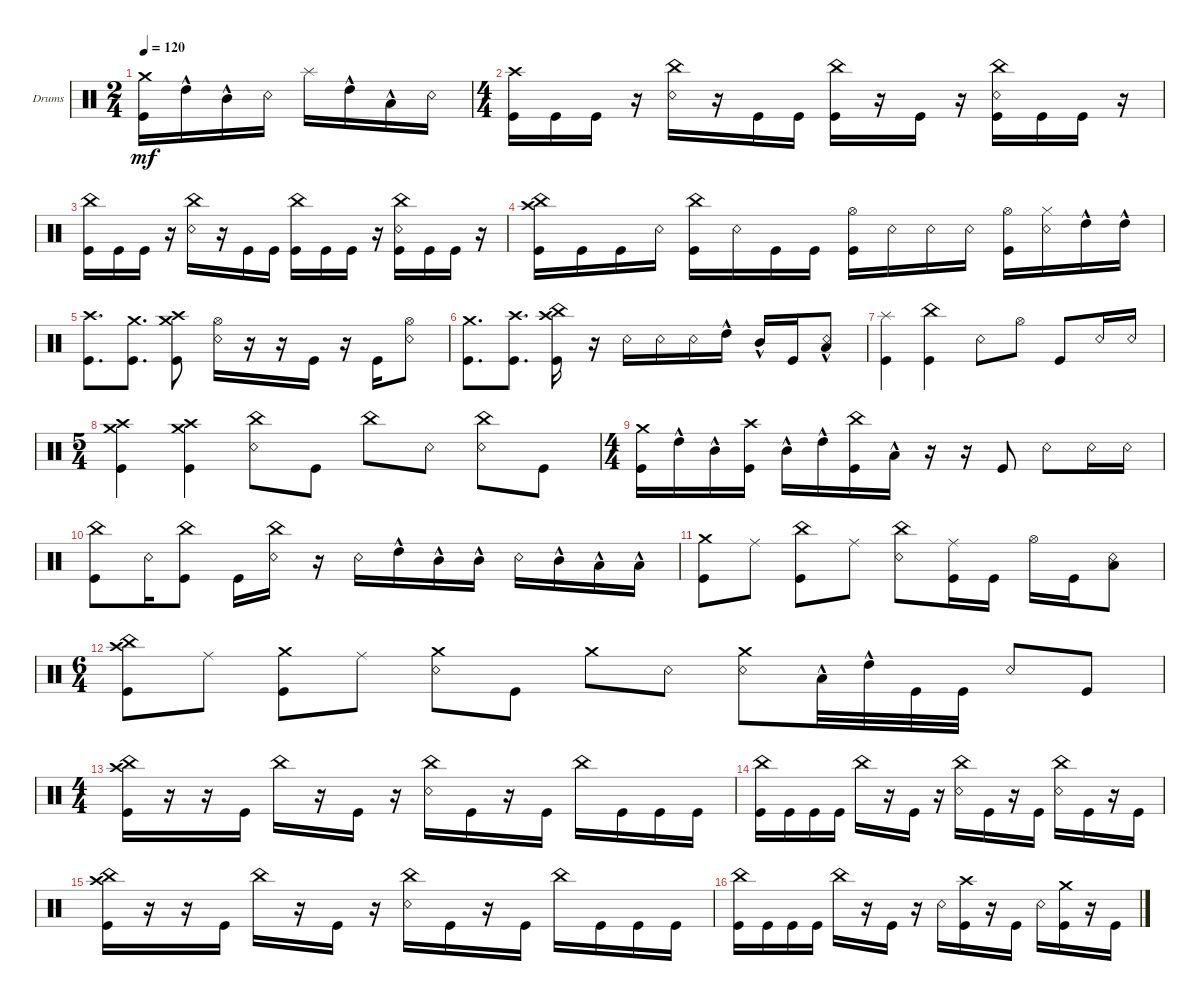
\defaultSystemsLayout 4
\bracketExtendMode groupsimilarinstruments
\firstSystemTrackNameOrientation horizontal
\otherSystemsTrackNameOrientation horizontal
\track ("Drumkit" "Drums") {instrument percussion}
\staff {score}
\articulation defaults
\ts (2 4)
\tempo 120
\clef neutral
\ks c
("Kick (hit)" "Crash medium (hit)").16{dy mf} "High Tom (hit)"{hac}.16 "Mid Tom (hit)"{hac}.16 "Snare (rim shot)".16 "Splash (hit)".16 "High Tom (hit)"{hac}.16 "Low Tom (hit)"{hac}.16 "Snare (rim shot)".16 |
\ts (4 4)
("Kick (hit)" "Crash high (hit)").16 "Kick (hit)".16 "Kick (hit)".16 r.16 ("China (hit)" "Snare (rim shot)").16 r.16 "Kick (hit)".16 "Kick (hit)".16 ("Kick (hit)" "China (hit)").16 r.16 "Kick (hit)".16 r.16 ("Kick (hit)" "Snare (rim shot)" "China (hit)").16 "Kick (hit)".16 "Kick (hit)".16 r.16 |
("Kick (hit)" "China (hit)").16 "Kick (hit)".16 "Kick (hit)".16 r.16 ("China (hit)" "Snare (rim shot)").16 r.16 "Kick (hit)".16 "Kick (hit)".16 ("Kick (hit)" "China (hit)").16 "Kick (hit)".16 "Kick (hit)".16 r.16 ("Kick (hit)" "Snare (rim shot)" "China (hit)").16 "Kick (hit)".16 "Kick (hit)".16 r.16 |
("Kick (hit)" "China (hit)" "Crash high (hit)").16 "Kick (hit)".16 "Kick (hit)".16 "Snare (rim shot)".16 ("Kick (hit)" "China (hit)").16 "Snare (rim shot)".16 "Kick (hit)".16 "Kick (hit)".16 ("Kick (hit)" "Hi-Hat (open)").16 "Snare (rim shot)".16 "Snare (rim shot)".16 "Snare (rim shot)".16 ("Kick (hit)" "Hi-Hat (open)").16 ("Snare (rim shot)" "Hi-Hat (closed)").16 "High Tom (hit)"{hac}.16 "High Tom (hit)"{hac}.16 |
("Kick (hit)" "Crash high (hit)").8{d} ("Kick (hit)" "Crash medium (hit)").8{d} ("Kick (hit)" "Crash high (hit)" "Crash medium (hit)").8 ("Snare (rim shot)" "Hi-Hat (open)").16 r.16 r.16 "Kick (hit)".16 r.16 "Kick (hit)".16 ("Snare (rim shot)" "Hi-Hat (open)").8 |
("Kick (hit)" "Crash medium (hit)").8{d} ("Kick (hit)" "Crash high (hit)").8{d} ("Crash high (hit)" "China (hit)" "Kick (hit)").16 r.16 "Snare (rim shot)".16 "Snare (rim shot)".16 "Snare (rim shot)".16 "High Tom (hit)"{hac}.16 "Mid Tom (hit)"{hac}.16 "Kick (hit)".16 ("Snare (rim shot)" "Low Tom (hit)"{hac}).8 |
("Splash (hit)" "Kick (hit)").4 ("Kick (hit)" "China (hit)").4 "Snare (rim shot)".8 "Hi-Hat (open)".8 "Kick (hit)".8 "Snare (rim shot)".16 "Snare (rim shot)".16 |
\ts (5 4)
("Kick (hit)" "Crash medium (hit)" "Crash high (hit)").4 ("Kick (hit)" "Crash medium (hit)" "Crash high (hit)").4 ("Snare (rim shot)" "China (hit)").8 "Kick (hit)".8 "China (hit)".8 "Snare (rim shot)".8 ("Snare (rim shot)" "China (hit)").8 "Kick (hit)".8 |
\ts (4 4)
("Kick (hit)" "Crash medium (hit)").16 "High Tom (hit)"{hac}.16 "Mid Tom (hit)"{hac}.16 ("Kick (hit)" "Crash high (hit)").16 "Mid Tom (hit)"{hac}.16 "High Tom (hit)"{hac}.16 ("Kick (hit)" "China (hit)").16 "Low Tom (hit)"{hac}.16 r.16 r.16 "Kick (hit)".8 "Snare (rim shot)".8 "Snare (rim shot)".16 "Snare (rim shot)".16 |
("China (hit)" "Kick (hit)").8 "Snare (rim shot)".16 ("China (hit)" "Kick (hit)").8 "Kick (hit)".16 ("China (hit)" "Snare (rim shot)").16 r.16 "Snare (rim shot)".16 "High Tom (hit)"{hac}.16 "Mid Tom (hit)"{hac}.16 "Mid Tom (hit)"{hac}.16 "Snare (rim shot)".16 "Mid Tom (hit)"{hac}.16 "Low Tom (hit)"{hac}.16 "Low Tom (hit)"{hac}.16 |
("Kick (hit)" "Crash medium (hit)").8 "Ride (middle)".8 ("Kick (hit)" "China (hit)").8 "Ride (middle)".8 ("Snare (rim shot)" "China (hit)").8 ("Kick (hit)" "Ride (middle)").16 "Kick (hit)".16 "Hi-Hat (open)".16 "Kick (hit)".16 ("Snare (rim shot)" "Low Tom (hit)").8 |
\ts (6 4)
\scale
0.381903 ("China (hit)" "Kick (hit)" "Crash high (hit)").8 "Ride (middle)".8 ("Kick (hit)" "Crash medium (hit)").8 "Ride (middle)".8 ("Snare (rim shot)" "Crash medium (hit)").8 "Kick (hit)".8 "Crash medium (hit)".8 "Snare (rim shot)".8 ("Snare (rim shot)" "Crash medium (hit)").8 "Low Tom (hit)"{hac}.32 "High Tom (hit)"{hac}.32 "Kick (hit)".32 "Kick (hit)".32 "Snare (rim shot)".8 "Kick (hit)".8 |
\ts (4 4)
("Kick (hit)" "China (hit)" "Crash high (hit)").16 r.16 r.16 "Kick (hit)".16 "China (hit)".16 r.16 "Kick (hit)".16 r.16 ("Snare (rim shot)" "China (hit)").16 "Kick (hit)".16 r.16 "Kick (hit)".16 "China (hit)".16 "Kick (hit)".16 "Kick (hit)".16 "Kick (hit)".16 |
("Kick (hit)" "China (hit)").16 "Kick (hit)".16 "Kick (hit)".16 "Kick (hit)".16 "China (hit)".16 r.16 "Kick (hit)".16 r.16 ("Snare (rim shot)" "China (hit)").16 "Kick (hit)".16 r.16 "Kick (hit)".16 ("Snare (rim shot)" "China (hit)").16 "Kick (hit)".16 r.16 "Kick (hit)".16 |
("Kick (hit)" "China (hit)" "Crash high (hit)").16 r.16 r.16 "Kick (hit)".16 "China (hit)".16 r.16 "Kick (hit)".16 r.16 ("Snare (rim shot)" "China (hit)").16 "Kick (hit)".16 r.16 "Kick (hit)".16 "China (hit)".16 "Kick (hit)".16 "Kick (hit)".16 "Kick (hit)".16 |
("Kick (hit)" "China (hit)").16 "Kick (hit)".16 "Kick (hit)".16 "Kick (hit)".16 "China (hit)".16 r.16 "Kick (hit)".16 r.16 "Snare (rim shot)".16 ("Kick (hit)" "Crash high (hit)").16 r.16 "Kick (hit)".16 "Snare (rim shot)".16 ("Kick (hit)" "Crash medium (hit)").16 r.16 "Kick (hit)".16
